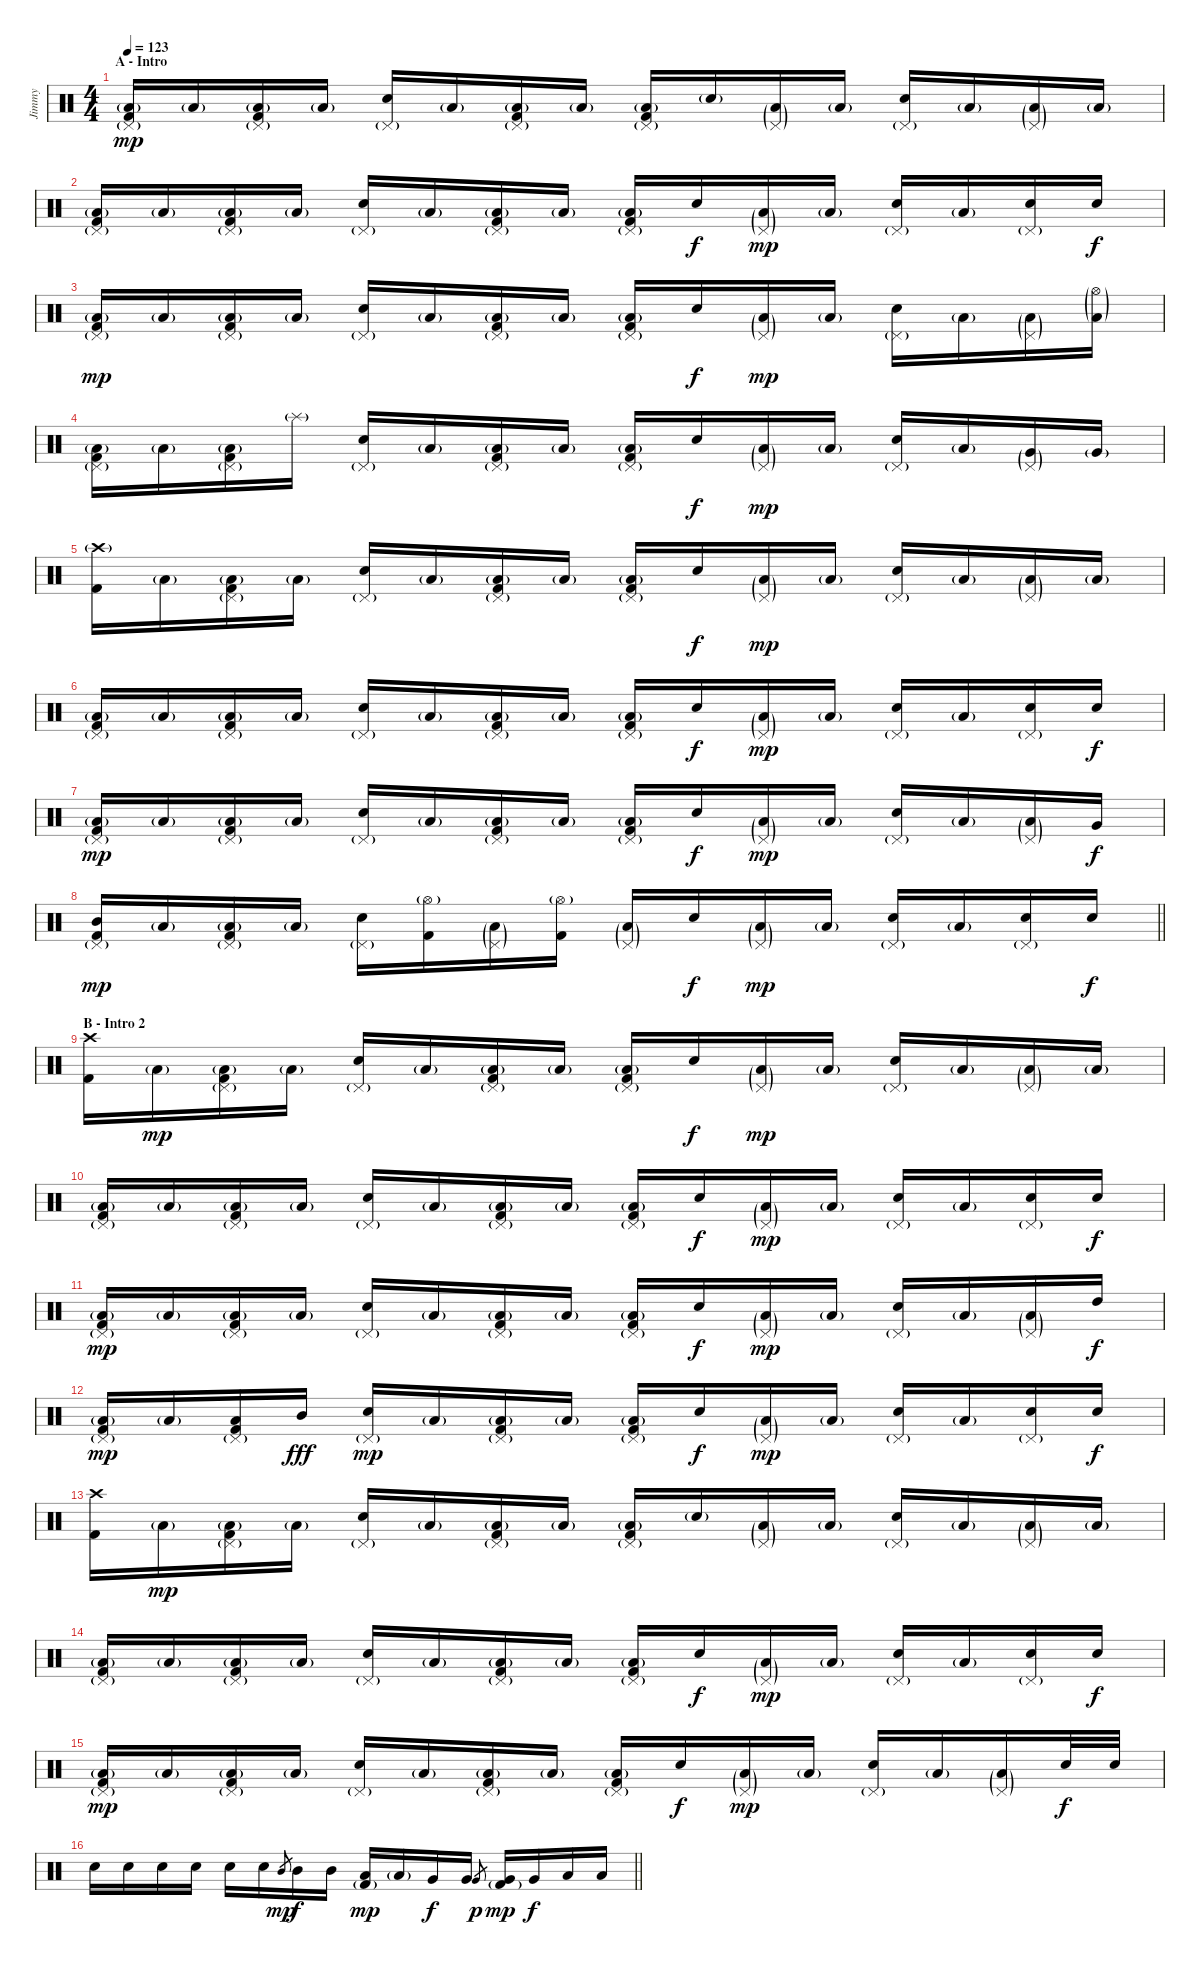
\track ("Jimmy" "Jimmy") {instrument percussion}
\staff {score}
\articulation defaults
\ts (4 4)
\section ("" "A - Intro")
\tempo 123
\clef neutral
\ks c
("Pedal Hi-Hat (hit)"{g} "Low Tom (hit)"{g} "Kick (hit) 2").16{dy mp} "Low Tom (hit)"{g}.16 ("Pedal Hi-Hat (hit)"{g} "Low Tom (hit)"{g} "Kick (hit) 2").16 "Low Tom (hit)"{g}.16 ("Pedal Hi-Hat (hit)"{g} "Electric Snare (hit)").16 "Low Tom (hit)"{g}.16 ("Pedal Hi-Hat (hit)"{g} "Low Tom (hit)"{g} "Kick (hit) 2").16 "Low Tom (hit)"{g}.16 ("Pedal Hi-Hat (hit)"{g} "Low Tom (hit)"{g} "Kick (hit) 2").16 "Electric Snare (hit)"{g}.16 ("Pedal Hi-Hat (hit)"{g} "Low Tom (hit)"{g}).16 "Low Tom (hit)"{g}.16 ("Pedal Hi-Hat (hit)"{g} "Electric Snare (hit)").16 "Low Tom (hit)"{g}.16 ("Pedal Hi-Hat (hit)"{g} "Low Tom (hit)"{g}).16 "Low Tom (hit)"{g}.16 |
("Pedal Hi-Hat (hit)"{g} "Low Tom (hit)"{g} "Kick (hit) 2").16 "Low Tom (hit)"{g}.16 ("Pedal Hi-Hat (hit)"{g} "Low Tom (hit)"{g} "Kick (hit) 2").16 "Low Tom (hit)"{g}.16 ("Pedal Hi-Hat (hit)"{g} "Electric Snare (hit)").16 "Low Tom (hit)"{g}.16 ("Pedal Hi-Hat (hit)"{g} "Low Tom (hit)"{g} "Kick (hit) 2").16 "Low Tom (hit)"{g}.16 ("Pedal Hi-Hat (hit)"{g} "Low Tom (hit)"{g} "Kick (hit) 2").16 "Electric Snare (hit)".16{dy f} ("Pedal Hi-Hat (hit)"{g} "Low Tom (hit)"{g}).16{dy mp} "Low Tom (hit)"{g}.16 ("Pedal Hi-Hat (hit)"{g} "Electric Snare (hit)").16 "Low Tom (hit)"{g}.16 ("Pedal Hi-Hat (hit)"{g} "Electric Snare (hit)").16 "Electric Snare (hit)".16{dy f} |
("Pedal Hi-Hat (hit)"{g} "Low Tom (hit)"{g} "Kick (hit) 2").16{dy mp} "Low Tom (hit)"{g}.16 ("Pedal Hi-Hat (hit)"{g} "Low Tom (hit)"{g} "Kick (hit) 2").16 "Low Tom (hit)"{g}.16 ("Pedal Hi-Hat (hit)"{g} "Electric Snare (hit)").16 "Low Tom (hit)"{g}.16 ("Pedal Hi-Hat (hit)"{g} "Low Tom (hit)"{g} "Kick (hit) 2").16 "Low Tom (hit)"{g}.16 ("Pedal Hi-Hat (hit)"{g} "Low Tom (hit)"{g} "Kick (hit) 2").16 "Electric Snare (hit)".16{dy f} ("Pedal Hi-Hat (hit)"{g} "Low Tom (hit)"{g}).16{dy mp} "Low Tom (hit)"{g}.16 ("Pedal Hi-Hat (hit)"{g} "Electric Snare (hit)").16 "Low Tom (hit)"{g}.16 ("Pedal Hi-Hat (hit)"{g} "Low Tom (hit)"{g}).16 ("Hi-Hat (open)"{g} "Low Tom (hit)"{g}).16 |
("Pedal Hi-Hat (hit)"{g} "Low Tom (hit)"{g} "Kick (hit) 2").16 "Low Tom (hit)"{g}.16 ("Pedal Hi-Hat (hit)"{g} "Low Tom (hit)"{g} "Kick (hit) 2").16 "Splash (hit)"{g}.16 ("Pedal Hi-Hat (hit)"{g} "Electric Snare (hit)").16 "Low Tom (hit)"{g}.16 ("Pedal Hi-Hat (hit)"{g} "Low Tom (hit)"{g} "Kick (hit) 2").16 "Low Tom (hit)"{g}.16 ("Pedal Hi-Hat (hit)"{g} "Low Tom (hit)"{g} "Kick (hit) 2").16 "Electric Snare (hit)".16{dy f} ("Pedal Hi-Hat (hit)"{g} "Low Tom (hit)"{g}).16{dy mp} "Low Tom (hit)"{g}.16 ("Pedal Hi-Hat (hit)"{g} "Electric Snare (hit)").16 "Low Tom (hit)"{g}.16 ("Pedal Hi-Hat (hit)"{g} "Very Low Tom (hit)"{g}).16 "Very Low Tom (hit)"{g}.16 |
("Crash high (hit)"{g} "Kick (hit) 2").16 "Low Tom (hit)"{g}.16 ("Pedal Hi-Hat (hit)"{g} "Low Tom (hit)"{g} "Kick (hit) 2").16 "Low Tom (hit)"{g}.16 ("Pedal Hi-Hat (hit)"{g} "Electric Snare (hit)").16 "Low Tom (hit)"{g}.16 ("Pedal Hi-Hat (hit)"{g} "Low Tom (hit)"{g} "Kick (hit) 2").16 "Low Tom (hit)"{g}.16 ("Pedal Hi-Hat (hit)"{g} "Low Tom (hit)"{g} "Kick (hit) 2").16 "Electric Snare (hit)".16{dy f} ("Pedal Hi-Hat (hit)"{g} "Low Tom (hit)"{g}).16{dy mp} "Low Tom (hit)"{g}.16 ("Pedal Hi-Hat (hit)"{g} "Electric Snare (hit)").16 "Low Tom (hit)"{g}.16 ("Pedal Hi-Hat (hit)"{g} "Low Tom (hit)"{g}).16 "Low Tom (hit)"{g}.16 |
("Pedal Hi-Hat (hit)"{g} "Low Tom (hit)"{g} "Kick (hit) 2").16 "Low Tom (hit)"{g}.16 ("Pedal Hi-Hat (hit)"{g} "Low Tom (hit)"{g} "Kick (hit) 2").16 "Low Tom (hit)"{g}.16 ("Pedal Hi-Hat (hit)"{g} "Electric Snare (hit)").16 "Low Tom (hit)"{g}.16 ("Pedal Hi-Hat (hit)"{g} "Low Tom (hit)"{g} "Kick (hit) 2").16 "Low Tom (hit)"{g}.16 ("Pedal Hi-Hat (hit)"{g} "Low Tom (hit)"{g} "Kick (hit) 2").16 "Electric Snare (hit)".16{dy f} ("Pedal Hi-Hat (hit)"{g} "Low Tom (hit)"{g}).16{dy mp} "Low Tom (hit)"{g}.16 ("Pedal Hi-Hat (hit)"{g} "Electric Snare (hit)").16 "Low Tom (hit)"{g}.16 ("Pedal Hi-Hat (hit)"{g} "Electric Snare (hit)").16 "Electric Snare (hit)".16{dy f} |
("Pedal Hi-Hat (hit)"{g} "Low Tom (hit)"{g} "Kick (hit) 2").16{dy mp} "Low Tom (hit)"{g}.16 ("Pedal Hi-Hat (hit)"{g} "Low Tom (hit)"{g} "Kick (hit) 2").16 "Low Tom (hit)"{g}.16 ("Pedal Hi-Hat (hit)"{g} "Electric Snare (hit)").16 "Low Tom (hit)"{g}.16 ("Pedal Hi-Hat (hit)"{g} "Low Tom (hit)"{g} "Kick (hit) 2").16 "Low Tom (hit)"{g}.16 ("Pedal Hi-Hat (hit)"{g} "Low Tom (hit)"{g} "Kick (hit) 2").16 "Electric Snare (hit)".16{dy f} ("Pedal Hi-Hat (hit)"{g} "Low Tom (hit)"{g}).16{dy mp} "Low Tom (hit)"{g}.16 ("Pedal Hi-Hat (hit)"{g} "Electric Snare (hit)").16 "Low Tom (hit)"{g}.16 ("Pedal Hi-Hat (hit)"{g} "Low Tom (hit)"{g}).16 "Very Low Tom (hit)".16{dy f} |
\barLineRight lightlight
("Pedal Hi-Hat (hit)"{g} "Mid Tom (hit)" "Kick (hit) 2").16{dy mp} "Low Tom (hit)"{g}.16 ("Pedal Hi-Hat (hit)"{g} "Low Tom (hit)"{g} "Kick (hit) 2").16 "Low Tom (hit)"{g}.16 ("Pedal Hi-Hat (hit)"{g} "Electric Snare (hit)").16 ("Hi-Hat (open)"{g} "Kick (hit) 2").16 ("Pedal Hi-Hat (hit)"{g} "Low Tom (hit)"{g}).16 ("Hi-Hat (open)"{g} "Kick (hit) 2").16 ("Pedal Hi-Hat (hit)"{g} "Low Tom (hit)"{g}).16 "Electric Snare (hit)".16{dy f} ("Pedal Hi-Hat (hit)"{g} "Low Tom (hit)"{g}).16{dy mp} "Low Tom (hit)"{g}.16 ("Pedal Hi-Hat (hit)"{g} "Electric Snare (hit)").16 "Low Tom (hit)"{g}.16 ("Pedal Hi-Hat (hit)"{g} "Electric Snare (hit)").16 "Electric Snare (hit)".16{dy f} |
\section ("" "B - Intro 2")
("Crash high (hit)" "Kick (hit) 2").16 "Low Tom (hit)"{g}.16{dy mp} ("Pedal Hi-Hat (hit)"{g} "Low Tom (hit)"{g} "Kick (hit) 2").16 "Low Tom (hit)"{g}.16 ("Pedal Hi-Hat (hit)"{g} "Electric Snare (hit)").16 "Low Tom (hit)"{g}.16 ("Pedal Hi-Hat (hit)"{g} "Low Tom (hit)"{g} "Kick (hit) 2").16 "Low Tom (hit)"{g}.16 ("Pedal Hi-Hat (hit)"{g} "Low Tom (hit)"{g} "Kick (hit) 2").16 "Electric Snare (hit)".16{dy f} ("Pedal Hi-Hat (hit)"{g} "Low Tom (hit)"{g}).16{dy mp} "Low Tom (hit)"{g}.16 ("Pedal Hi-Hat (hit)"{g} "Electric Snare (hit)").16 "Low Tom (hit)"{g}.16 ("Pedal Hi-Hat (hit)"{g} "Low Tom (hit)"{g}).16 "Low Tom (hit)"{g}.16 |
("Pedal Hi-Hat (hit)"{g} "Low Tom (hit)"{g} "Kick (hit) 2").16 "Low Tom (hit)"{g}.16 ("Pedal Hi-Hat (hit)"{g} "Low Tom (hit)"{g} "Kick (hit) 2").16 "Low Tom (hit)"{g}.16 ("Pedal Hi-Hat (hit)"{g} "Electric Snare (hit)").16 "Low Tom (hit)"{g}.16 ("Pedal Hi-Hat (hit)"{g} "Low Tom (hit)"{g} "Kick (hit) 2").16 "Low Tom (hit)"{g}.16 ("Pedal Hi-Hat (hit)"{g} "Low Tom (hit)"{g} "Kick (hit) 2").16 "Electric Snare (hit)".16{dy f} ("Pedal Hi-Hat (hit)"{g} "Low Tom (hit)"{g}).16{dy mp} "Low Tom (hit)"{g}.16 ("Pedal Hi-Hat (hit)"{g} "Electric Snare (hit)").16 "Low Tom (hit)"{g}.16 ("Pedal Hi-Hat (hit)"{g} "Electric Snare (hit)").16 "Electric Snare (hit)".16{dy f} |
("Pedal Hi-Hat (hit)"{g} "Low Tom (hit)"{g} "Kick (hit) 2").16{dy mp} "Low Tom (hit)"{g}.16 ("Pedal Hi-Hat (hit)"{g} "Low Tom (hit)"{g} "Kick (hit) 2").16 "Low Tom (hit)"{g}.16 ("Pedal Hi-Hat (hit)"{g} "Electric Snare (hit)").16 "Low Tom (hit)"{g}.16 ("Pedal Hi-Hat (hit)"{g} "Low Tom (hit)"{g} "Kick (hit) 2").16 "Low Tom (hit)"{g}.16 ("Pedal Hi-Hat (hit)"{g} "Low Tom (hit)"{g} "Kick (hit) 2").16 "Electric Snare (hit)".16{dy f} ("Pedal Hi-Hat (hit)"{g} "Low Tom (hit)"{g}).16{dy mp} "Low Tom (hit)"{g}.16 ("Pedal Hi-Hat (hit)"{g} "Electric Snare (hit)").16 "Low Tom (hit)"{g}.16 ("Pedal Hi-Hat (hit)"{g} "Low Tom (hit)"{g}).16 "High Tom (hit)".16{dy f} |
("Pedal Hi-Hat (hit)"{g} "Low Tom (hit)"{g} "Kick (hit) 2").16{dy mp} "Low Tom (hit)"{g}.16 ("Pedal Hi-Hat (hit)"{g} "Low Tom (hit)" "Kick (hit) 2").16 "Mid Tom (hit)".16{dy fff} ("Pedal Hi-Hat (hit)"{g} "Electric Snare (hit)").16{dy mp} "Low Tom (hit)"{g}.16 ("Pedal Hi-Hat (hit)"{g} "Low Tom (hit)"{g} "Kick (hit) 2").16 "Low Tom (hit)"{g}.16 ("Pedal Hi-Hat (hit)"{g} "Low Tom (hit)"{g} "Kick (hit) 2").16 "Electric Snare (hit)".16{dy f} ("Pedal Hi-Hat (hit)"{g} "Low Tom (hit)"{g}).16{dy mp} "Low Tom (hit)"{g}.16 ("Pedal Hi-Hat (hit)"{g} "Electric Snare (hit)").16 "Low Tom (hit)"{g}.16 ("Pedal Hi-Hat (hit)"{g} "Electric Snare (hit)").16 "Electric Snare (hit)".16{dy f} |
("Crash high (hit)" "Kick (hit) 2").16 "Low Tom (hit)"{g}.16{dy mp} ("Pedal Hi-Hat (hit)"{g} "Low Tom (hit)"{g} "Kick (hit) 2").16 "Low Tom (hit)"{g}.16 ("Pedal Hi-Hat (hit)"{g} "Electric Snare (hit)").16 "Low Tom (hit)"{g}.16 ("Pedal Hi-Hat (hit)"{g} "Low Tom (hit)"{g} "Kick (hit) 2").16 "Low Tom (hit)"{g}.16 ("Pedal Hi-Hat (hit)"{g} "Low Tom (hit)"{g} "Kick (hit) 2").16 "Electric Snare (hit)"{g}.16 ("Pedal Hi-Hat (hit)"{g} "Low Tom (hit)"{g}).16 "Low Tom (hit)"{g}.16 ("Pedal Hi-Hat (hit)"{g} "Electric Snare (hit)").16 "Low Tom (hit)"{g}.16 ("Pedal Hi-Hat (hit)"{g} "Low Tom (hit)"{g}).16 "Low Tom (hit)"{g}.16 |
("Pedal Hi-Hat (hit)"{g} "Low Tom (hit)"{g} "Kick (hit) 2").16 "Low Tom (hit)"{g}.16 ("Pedal Hi-Hat (hit)"{g} "Low Tom (hit)"{g} "Kick (hit) 2").16 "Low Tom (hit)"{g}.16 ("Pedal Hi-Hat (hit)"{g} "Electric Snare (hit)").16 "Low Tom (hit)"{g}.16 ("Pedal Hi-Hat (hit)"{g} "Low Tom (hit)"{g} "Kick (hit) 2").16 "Low Tom (hit)"{g}.16 ("Pedal Hi-Hat (hit)"{g} "Low Tom (hit)"{g} "Kick (hit) 2").16 "Electric Snare (hit)".16{dy f} ("Pedal Hi-Hat (hit)"{g} "Low Tom (hit)"{g}).16{dy mp} "Low Tom (hit)"{g}.16 ("Pedal Hi-Hat (hit)"{g} "Electric Snare (hit)").16 "Low Tom (hit)"{g}.16 ("Pedal Hi-Hat (hit)"{g} "Electric Snare (hit)").16 "Electric Snare (hit)".16{dy f} |
("Pedal Hi-Hat (hit)"{g} "Low Tom (hit)"{g} "Kick (hit) 2").16{dy mp} "Low Tom (hit)"{g}.16 ("Pedal Hi-Hat (hit)"{g} "Low Tom (hit)"{g} "Kick (hit) 2").16 "Low Tom (hit)"{g}.16 ("Pedal Hi-Hat (hit)"{g} "Electric Snare (hit)").16 "Low Tom (hit)"{g}.16 ("Pedal Hi-Hat (hit)"{g} "Low Tom (hit)"{g} "Kick (hit) 2").16 "Low Tom (hit)"{g}.16 ("Pedal Hi-Hat (hit)"{g} "Low Tom (hit)"{g} "Kick (hit) 2").16 "Electric Snare (hit)".16{dy f} ("Pedal Hi-Hat (hit)"{g} "Low Tom (hit)"{g}).16{dy mp} "Low Tom (hit)"{g}.16 ("Pedal Hi-Hat (hit)"{g} "Electric Snare (hit)").16 "Low Tom (hit)"{g}.16 ("Pedal Hi-Hat (hit)"{g} "Low Tom (hit)"{g}).16 "Electric Snare (hit)".32{dy f} "Electric Snare (hit)".32 |
\barLineRight lightlight "Electric Snare (hit)".16 "Electric Snare (hit)".16 "Electric Snare (hit)".16 "Electric Snare (hit)".16 "Electric Snare (hit)".16 "Electric Snare (hit)".16 "Mid Tom (hit)".8{gr dy mp} "Mid Tom (hit)".16{dy f} "Mid Tom (hit)".16
("Low Tom (hit)" "Kick (hit) 2"{g}).16{dy mp} "Low Tom (hit)"{g}.16 "Very Low Tom (hit)".16{dy f} "Very Low Tom (hit)".16 "Very Low Tom (hit)".8{gr dy p} ("Very Low Tom (hit)" "Kick (hit) 2"{g}).16{dy mp} "Very Low Tom (hit)".16{dy f} "Low Floor Tom (hit)".16 "Low Floor Tom (hit)".16
